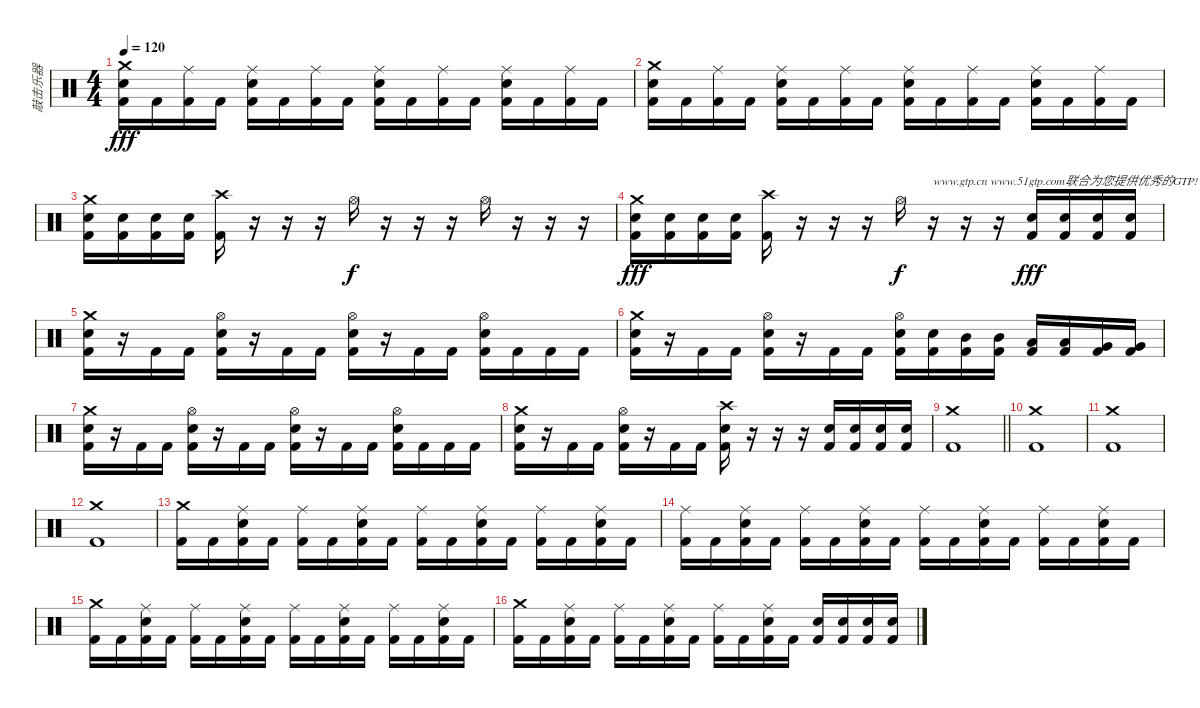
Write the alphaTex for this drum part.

\track ("敲击乐器" "敲击乐器") {instrument percussion}
\staff {score}
\articulation defaults
\ts (4 4)
\tempo 120
\clef neutral
\ks c
("Crash medium (hit)" "Snare (hit) 2" "Kick (hit) 2").16{dy fff} "Kick (hit) 2".16 ("Ride (middle)" "Kick (hit) 2").16 "Kick (hit) 2".16 ("Ride (middle)" "Snare (hit) 2" "Kick (hit) 2").16 "Kick (hit) 2".16 ("Ride (middle)" "Kick (hit) 2").16 "Kick (hit) 2".16 ("Ride (middle)" "Snare (hit) 2" "Kick (hit) 2").16 "Kick (hit) 2".16 ("Ride (middle)" "Kick (hit) 2").16 "Kick (hit) 2".16 ("Ride (middle)" "Snare (hit) 2" "Kick (hit) 2").16 "Kick (hit) 2".16 ("Ride (middle)" "Kick (hit) 2").16 "Kick (hit) 2".16 |
("Crash medium (hit)" "Snare (hit) 2" "Kick (hit) 2").16 "Kick (hit) 2".16 ("Ride (middle)" "Kick (hit) 2").16 "Kick (hit) 2".16 ("Ride (middle)" "Snare (hit) 2" "Kick (hit) 2").16 "Kick (hit) 2".16 ("Ride (middle)" "Kick (hit) 2").16 "Kick (hit) 2".16 ("Ride (middle)" "Snare (hit) 2" "Kick (hit) 2").16 "Kick (hit) 2".16 ("Ride (middle)" "Kick (hit) 2").16 "Kick (hit) 2".16 ("Ride (middle)" "Snare (hit) 2" "Kick (hit) 2").16 "Kick (hit) 2".16 ("Ride (middle)" "Kick (hit) 2").16 "Kick (hit) 2".16 |
("Crash medium (hit)" "Snare (hit) 2" "Kick (hit) 2").16 ("Snare (hit) 2" "Kick (hit) 2").16 ("Snare (hit) 2" "Kick (hit) 2").16 ("Snare (hit) 2" "Kick (hit) 2").16 ("Crash high (hit)" "Kick (hit) 2").16 r.16 r.16 r.16 "Hi-Hat (open)".16{dy f} r.16 r.16 r.16 "Hi-Hat (open)".16 r.16 r.16 r.16 |
("Crash medium (hit)" "Snare (hit) 2" "Kick (hit) 2").16{dy fff} ("Snare (hit) 2" "Kick (hit) 2").16 ("Snare (hit) 2" "Kick (hit) 2").16 ("Snare (hit) 2" "Kick (hit) 2").16 ("Crash high (hit)" "Kick (hit) 2").16 r.16 r.16 r.16 "Hi-Hat (open)".16{dy f} r.16{txt "www.gtp.cn www.51gtp.com联合为您提供优秀的GTP!"} r.16 r.16 ("Snare (hit) 2" "Kick (hit) 2").16{dy fff} ("Snare (hit) 2" "Kick (hit) 2").16 ("Snare (hit) 2" "Kick (hit) 2").16 ("Snare (hit) 2" "Kick (hit) 2").16 |
("Crash medium (hit)" "Snare (hit) 2" "Kick (hit) 2").16 r.16 "Kick (hit) 2".16 "Kick (hit) 2".16 ("Hi-Hat (open)" "Snare (hit) 2" "Kick (hit) 2").16 r.16 "Kick (hit) 2".16 "Kick (hit) 2".16 ("Hi-Hat (open)" "Snare (hit) 2" "Kick (hit) 2").16 r.16 "Kick (hit) 2".16 "Kick (hit) 2".16 ("Hi-Hat (open)" "Snare (hit) 2" "Kick (hit) 2").16 "Kick (hit) 2".16 "Kick (hit) 2".16 "Kick (hit) 2".16 |
("Crash medium (hit)" "Snare (hit) 2" "Kick (hit) 2").16 r.16 "Kick (hit) 2".16 "Kick (hit) 2".16 ("Hi-Hat (open)" "Snare (hit) 2" "Kick (hit) 2").16 r.16 "Kick (hit) 2".16 "Kick (hit) 2".16 ("Hi-Hat (open)" "Snare (hit) 2" "Kick (hit) 2").16 ("Snare (hit) 2" "Kick (hit) 2").16 ("Mid Tom (hit)" "Kick (hit) 2").16 ("Mid Tom (hit)" "Kick (hit) 2").16 ("Low Tom (hit)" "Kick (hit) 2").16 ("Low Tom (hit)" "Kick (hit) 2").16 ("Very Low Tom (hit)" "Kick (hit) 2").16 ("Very Low Tom (hit)" "Kick (hit) 2").16 |
("Crash medium (hit)" "Snare (hit) 2" "Kick (hit) 2").16 r.16 "Kick (hit) 2".16 "Kick (hit) 2".16 ("Hi-Hat (open)" "Snare (hit) 2" "Kick (hit) 2").16 r.16 "Kick (hit) 2".16 "Kick (hit) 2".16 ("Hi-Hat (open)" "Snare (hit) 2" "Kick (hit) 2").16 r.16 "Kick (hit) 2".16 "Kick (hit) 2".16 ("Hi-Hat (open)" "Snare (hit) 2" "Kick (hit) 2").16 "Kick (hit) 2".16 "Kick (hit) 2".16 "Kick (hit) 2".16 |
("Crash medium (hit)" "Snare (hit) 2" "Kick (hit) 2").16 r.16 "Kick (hit) 2".16 "Kick (hit) 2".16 ("Hi-Hat (open)" "Snare (hit) 2" "Kick (hit) 2").16 r.16 "Kick (hit) 2".16 "Kick (hit) 2".16 ("Crash high (hit)" "Snare (hit) 2" "Kick (hit) 2").16 r.16 r.16 r.16 ("Snare (hit) 2" "Kick (hit) 2").16 ("Snare (hit) 2" "Kick (hit) 2").16 ("Snare (hit) 2" "Kick (hit) 2").16 ("Snare (hit) 2" "Kick (hit) 2").16 |
\barLineRight lightlight
("Crash medium (hit)" "Kick (hit) 2").1 |
("Crash medium (hit)" "Kick (hit) 2").1 |
("Crash medium (hit)" "Kick (hit) 2").1 |
("Crash medium (hit)" "Kick (hit) 2").1 |
("Crash medium (hit)" "Kick (hit) 2").16 "Kick (hit) 2".16 ("Ride (middle)" "Snare (hit) 2" "Kick (hit) 2").16 "Kick (hit) 2".16 ("Ride (middle)" "Kick (hit) 2").16 "Kick (hit) 2".16 ("Ride (middle)" "Snare (hit) 2" "Kick (hit) 2").16 "Kick (hit) 2".16 ("Ride (middle)" "Kick (hit) 2").16 "Kick (hit) 2".16 ("Ride (middle)" "Snare (hit) 2" "Kick (hit) 2").16 "Kick (hit) 2".16 ("Ride (middle)" "Kick (hit) 2").16 "Kick (hit) 2".16 ("Ride (middle)" "Snare (hit) 2" "Kick (hit) 2").16 "Kick (hit) 2".16 |
("Ride (middle)" "Kick (hit) 2").16 "Kick (hit) 2".16 ("Ride (middle)" "Snare (hit) 2" "Kick (hit) 2").16 "Kick (hit) 2".16 ("Ride (middle)" "Kick (hit) 2").16 "Kick (hit) 2".16 ("Ride (middle)" "Snare (hit) 2" "Kick (hit) 2").16 "Kick (hit) 2".16 ("Ride (middle)" "Kick (hit) 2").16 "Kick (hit) 2".16 ("Ride (middle)" "Snare (hit) 2" "Kick (hit) 2").16 "Kick (hit) 2".16 ("Ride (middle)" "Kick (hit) 2").16 "Kick (hit) 2".16 ("Ride (middle)" "Snare (hit) 2" "Kick (hit) 2").16 "Kick (hit) 2".16 |
("Crash medium (hit)" "Kick (hit) 2").16 "Kick (hit) 2".16 ("Ride (middle)" "Snare (hit) 2" "Kick (hit) 2").16 "Kick (hit) 2".16 ("Ride (middle)" "Kick (hit) 2").16 "Kick (hit) 2".16 ("Ride (middle)" "Snare (hit) 2" "Kick (hit) 2").16 "Kick (hit) 2".16 ("Ride (middle)" "Kick (hit) 2").16 "Kick (hit) 2".16 ("Ride (middle)" "Snare (hit) 2" "Kick (hit) 2").16 "Kick (hit) 2".16 ("Ride (middle)" "Kick (hit) 2").16 "Kick (hit) 2".16 ("Ride (middle)" "Snare (hit) 2" "Kick (hit) 2").16 "Kick (hit) 2".16 |
("Crash medium (hit)" "Kick (hit) 2").16 "Kick (hit) 2".16 ("Ride (middle)" "Snare (hit) 2" "Kick (hit) 2").16 "Kick (hit) 2".16 ("Ride (middle)" "Kick (hit) 2").16 "Kick (hit) 2".16 ("Ride (middle)" "Snare (hit) 2" "Kick (hit) 2").16 "Kick (hit) 2".16 ("Ride (middle)" "Kick (hit) 2").16 "Kick (hit) 2".16 ("Ride (middle)" "Snare (hit) 2" "Kick (hit) 2").16 "Kick (hit) 2".16 ("Snare (hit) 2" "Kick (hit) 2").16 ("Snare (hit) 2" "Kick (hit) 2").16 ("Snare (hit) 2" "Kick (hit) 2").16 ("Snare (hit) 2" "Kick (hit) 2").16
